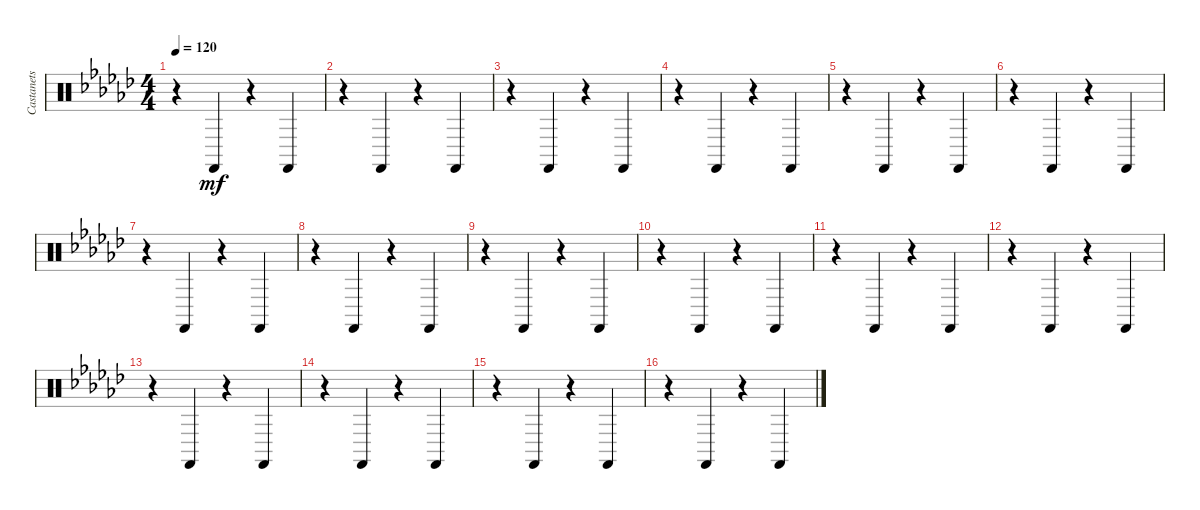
\track ("Castanets" "Castanets") {instrument percussion}
\staff {score}
\articulation defaults
\ts (4 4)
\tempo 120
\clef neutral
\ks ebminor
r.4{dy mf} "Castanets (hit)".4 r.4 "Castanets (hit)".4 |
r.4 "Castanets (hit)".4 r.4 "Castanets (hit)".4 |
r.4 "Castanets (hit)".4 r.4 "Castanets (hit)".4 |
r.4 "Castanets (hit)".4 r.4 "Castanets (hit)".4 |
r.4 "Castanets (hit)".4 r.4 "Castanets (hit)".4 |
r.4 "Castanets (hit)".4 r.4 "Castanets (hit)".4 |
r.4 "Castanets (hit)".4 r.4 "Castanets (hit)".4 |
r.4 "Castanets (hit)".4 r.4 "Castanets (hit)".4 |
r.4 "Castanets (hit)".4 r.4 "Castanets (hit)".4 |
r.4 "Castanets (hit)".4 r.4 "Castanets (hit)".4 |
r.4 "Castanets (hit)".4 r.4 "Castanets (hit)".4 |
r.4 "Castanets (hit)".4 r.4 "Castanets (hit)".4 |
r.4 "Castanets (hit)".4 r.4 "Castanets (hit)".4 |
r.4 "Castanets (hit)".4 r.4 "Castanets (hit)".4 |
r.4 "Castanets (hit)".4 r.4 "Castanets (hit)".4 |
r.4 "Castanets (hit)".4 r.4 "Castanets (hit)".4
